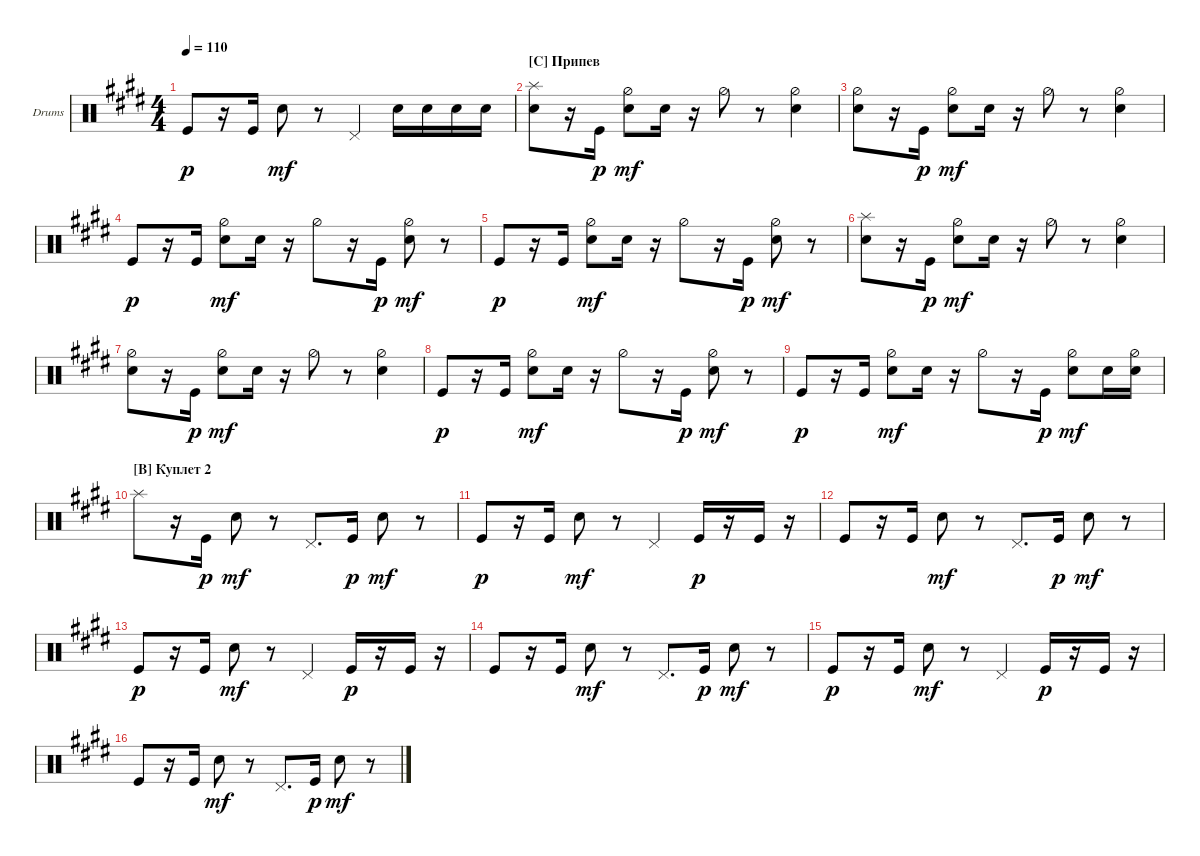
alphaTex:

\defaultSystemsLayout 4
\bracketExtendMode groupsimilarinstruments
\firstSystemTrackNameOrientation horizontal
\otherSystemsTrackNameOrientation horizontal
\track ("Drumkit" "Drums") {instrument percussion}
\staff {score}
\articulation defaults
\ts (4 4)
\tempo 110
\clef neutral
\ks c#minor "Kick (hit)".8{dy p}
r.16 "Kick (hit)".16 "Snare (hit) 2".8{dy mf} r.8 "Pedal Hi-Hat (hit)".4 "Snare (hit) 2".16 "Snare (hit) 2".16 "Snare (hit) 2".16 "Snare (hit) 2".16 |
\section ("C" "Припев")
("Splash (hit)" "Snare (hit) 2").8 r.16 "Kick (hit)".16{dy p} ("Snare (hit) 2" "Hi-Hat (half)").8{dy mf} "Snare (hit) 2".16 r.16 "Hi-Hat (half)".8 r.8 ("Snare (hit) 2" "Hi-Hat (half)").4 |
("Snare (hit) 2" "Hi-Hat (half)").8 r.16 "Kick (hit)".16{dy p} ("Snare (hit) 2" "Hi-Hat (half)").8{dy mf} "Snare (hit) 2".16 r.16 "Hi-Hat (half)".8 r.8 ("Snare (hit) 2" "Hi-Hat (half)").4 |
"Kick (hit)".8{dy p} r.16 "Kick (hit)".16 ("Snare (hit) 2" "Hi-Hat (half)").8{dy mf} "Snare (hit) 2".16 r.16 "Hi-Hat (half)".8 r.16 "Kick (hit)".16{dy p} ("Snare (hit) 2" "Hi-Hat (half)").8{dy mf} r.8 |
"Kick (hit)".8{dy p} r.16 "Kick (hit)".16 ("Snare (hit) 2" "Hi-Hat (half)").8{dy mf} "Snare (hit) 2".16 r.16 "Hi-Hat (half)".8 r.16 "Kick (hit)".16{dy p} ("Snare (hit) 2" "Hi-Hat (half)").8{dy mf} r.8 |
("Splash (hit)" "Snare (hit) 2").8 r.16 "Kick (hit)".16{dy p} ("Snare (hit) 2" "Hi-Hat (half)").8{dy mf} "Snare (hit) 2".16 r.16 "Hi-Hat (half)".8 r.8 ("Snare (hit) 2" "Hi-Hat (half)").4 |
("Snare (hit) 2" "Hi-Hat (half)").8 r.16 "Kick (hit)".16{dy p} ("Snare (hit) 2" "Hi-Hat (half)").8{dy mf} "Snare (hit) 2".16 r.16 "Hi-Hat (half)".8 r.8 ("Snare (hit) 2" "Hi-Hat (half)").4 |
"Kick (hit)".8{dy p} r.16 "Kick (hit)".16 ("Snare (hit) 2" "Hi-Hat (half)").8{dy mf} "Snare (hit) 2".16 r.16 "Hi-Hat (half)".8 r.16 "Kick (hit)".16{dy p} ("Snare (hit) 2" "Hi-Hat (half)").8{dy mf} r.8 |
"Kick (hit)".8{dy p} r.16 "Kick (hit)".16 ("Snare (hit) 2" "Hi-Hat (half)").8{dy mf} "Snare (hit) 2".16 r.16 "Hi-Hat (half)".8 r.16 "Kick (hit)".16{dy p} ("Snare (hit) 2" "Hi-Hat (half)").8{dy mf} "Snare (hit) 2".16 ("Snare (hit) 2" "Hi-Hat (half)").16 |
\section ("B" "Куплет 2")
"Splash (hit)".8 r.16 "Kick (hit)".16{dy p} "Snare (hit) 2".8{dy mf} r.8 "Pedal Hi-Hat (hit)".8{d} "Kick (hit)".16{dy p} "Snare (hit) 2".8{dy mf} r.8 |
"Kick (hit)".8{dy p} r.16 "Kick (hit)".16 "Snare (hit) 2".8{dy mf} r.8 "Pedal Hi-Hat (hit)".4 "Kick (hit)".16{dy p} r.16 "Kick (hit)".16 r.16 |
"Kick (hit)".8 r.16 "Kick (hit)".16 "Snare (hit) 2".8{dy mf} r.8 "Pedal Hi-Hat (hit)".8{d} "Kick (hit)".16{dy p} "Snare (hit) 2".8{dy mf} r.8 |
"Kick (hit)".8{dy p} r.16 "Kick (hit)".16 "Snare (hit) 2".8{dy mf} r.8 "Pedal Hi-Hat (hit)".4 "Kick (hit)".16{dy p} r.16 "Kick (hit)".16 r.16 |
"Kick (hit)".8 r.16 "Kick (hit)".16 "Snare (hit) 2".8{dy mf} r.8 "Pedal Hi-Hat (hit)".8{d} "Kick (hit)".16{dy p} "Snare (hit) 2".8{dy mf} r.8 |
"Kick (hit)".8{dy p} r.16 "Kick (hit)".16 "Snare (hit) 2".8{dy mf} r.8 "Pedal Hi-Hat (hit)".4 "Kick (hit)".16{dy p} r.16 "Kick (hit)".16 r.16 |
"Kick (hit)".8 r.16 "Kick (hit)".16 "Snare (hit) 2".8{dy mf} r.8 "Pedal Hi-Hat (hit)".8{d} "Kick (hit)".16{dy p} "Snare (hit) 2".8{dy mf} r.8
